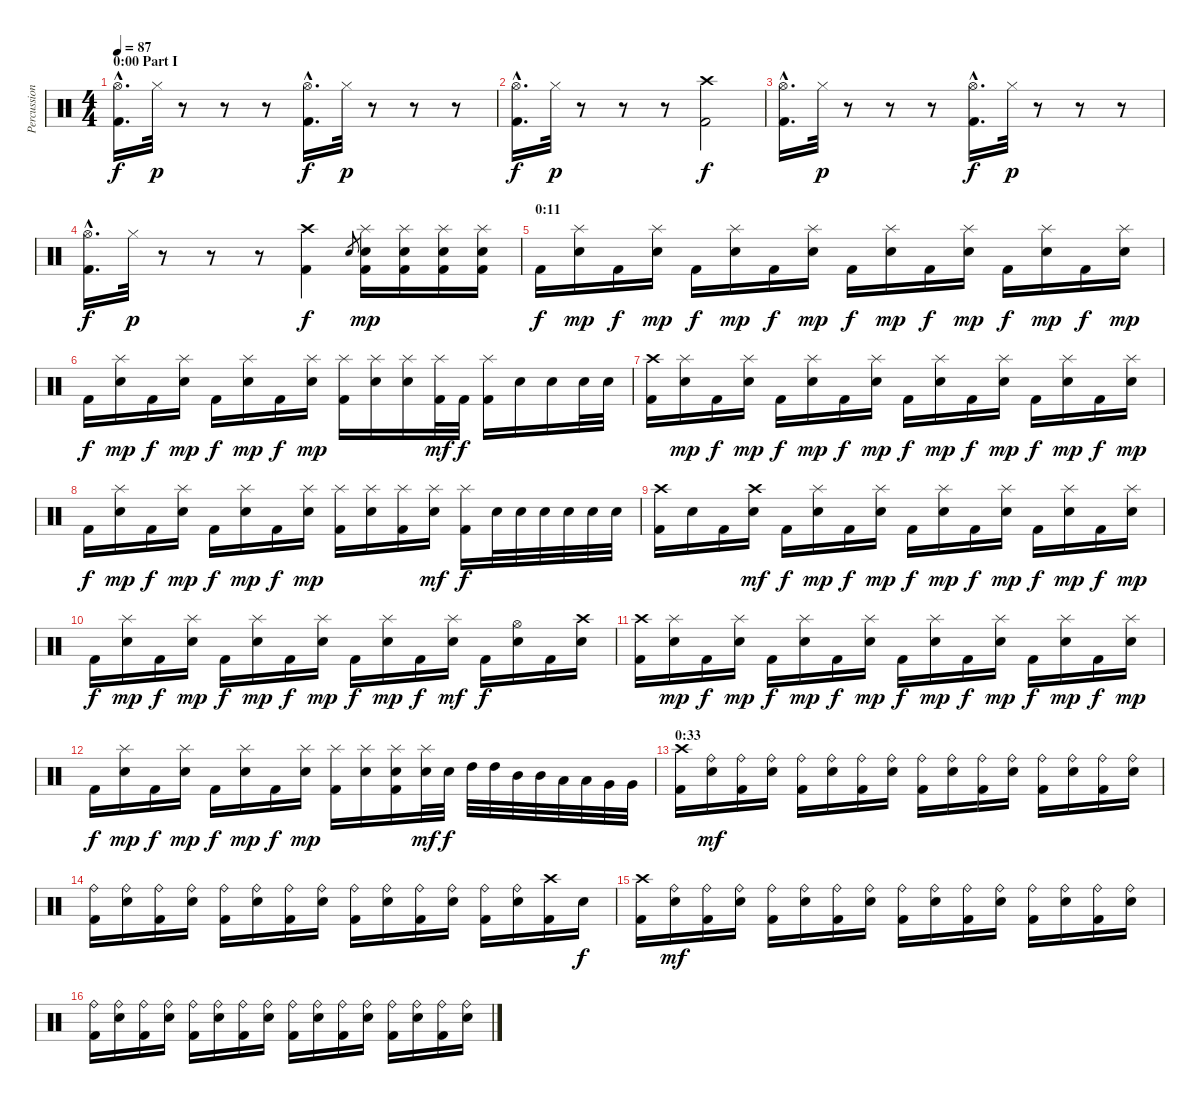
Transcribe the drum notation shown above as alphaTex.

\track ("Percussion" "Percussion") {instrument percussion}
\staff {score}
\articulation defaults
\ts (4 4)
\section ("" "0:00 Part I")
\tempo 87
\clef neutral
\ks c
("Hi-Hat (open)"{hac} "Kick (hit) 2"{hac}).16{d dy f} "Hi-Hat (closed)".32{dy p} r.8 r.8 r.8 ("Hi-Hat (open)"{hac} "Kick (hit) 2"{hac}).16{d dy f} "Hi-Hat (closed)".32{dy p} r.8 r.8 r.8 |
("Hi-Hat (open)"{hac} "Kick (hit) 2"{hac}).16{d dy f} "Hi-Hat (closed)".32{dy p} r.8 r.8 r.8 ("Crash high (hit)" "Kick (hit) 2").2{dy f} |
("Hi-Hat (open)"{hac} "Kick (hit) 2"{hac}).16{d} "Hi-Hat (closed)".32{dy p} r.8 r.8 r.8 ("Hi-Hat (open)"{hac} "Kick (hit) 2"{hac}).16{d dy f} "Hi-Hat (closed)".32{dy p} r.8 r.8 r.8 |
("Hi-Hat (open)"{hac} "Kick (hit) 2"{hac}).16{d dy f} "Hi-Hat (closed)".32{dy p} r.8 r.8 r.8 ("Crash high (hit)" "Kick (hit) 2").4{dy f} "Snare (hit) 2".8{gr} ("Splash (hit)" "Snare (hit) 2" "Kick (hit) 2").16{dy mp} ("Splash (hit)" "Snare (hit) 2" "Kick (hit) 2").16 ("Splash (hit)" "Snare (hit) 2" "Kick (hit) 2").16 ("Splash (hit)" "Snare (hit) 2" "Kick (hit) 2").16 |
\section ("" "0:11")
"Kick (hit) 2".16{dy f} ("Splash (hit)" "Snare (hit) 2").16{dy mp} "Kick (hit) 2".16{dy f} ("Splash (hit)" "Snare (hit) 2").16{dy mp} "Kick (hit) 2".16{dy f} ("Splash (hit)" "Snare (hit) 2").16{dy mp} "Kick (hit) 2".16{dy f} ("Splash (hit)" "Snare (hit) 2").16{dy mp} "Kick (hit) 2".16{dy f} ("Splash (hit)" "Snare (hit) 2").16{dy mp} "Kick (hit) 2".16{dy f} ("Splash (hit)" "Snare (hit) 2").16{dy mp} "Kick (hit) 2".16{dy f} ("Splash (hit)" "Snare (hit) 2").16{dy mp} "Kick (hit) 2".16{dy f} ("Splash (hit)" "Snare (hit) 2").16{dy mp} |
"Kick (hit) 2".16{dy f} ("Splash (hit)" "Snare (hit) 2").16{dy mp} "Kick (hit) 2".16{dy f} ("Splash (hit)" "Snare (hit) 2").16{dy mp} "Kick (hit) 2".16{dy f} ("Splash (hit)" "Snare (hit) 2").16{dy mp} "Kick (hit) 2".16{dy f} ("Splash (hit)" "Snare (hit) 2").16{dy mp} ("Splash (hit)" "Kick (hit) 2").16 ("Splash (hit)" "Snare (hit) 2").16 ("Splash (hit)" "Snare (hit) 2").16 ("Splash (hit)" "Kick (hit) 2").32{dy mf} "Kick (hit) 2".32{dy f} ("Splash (hit)" "Kick (hit) 2").16 "Snare (hit) 2".16 "Snare (hit) 2".16 "Snare (hit) 2".32 "Snare (hit) 2".32 |
("Crash high (hit)" "Kick (hit) 2").16 ("Splash (hit)" "Snare (hit) 2").16{dy mp} "Kick (hit) 2".16{dy f} ("Splash (hit)" "Snare (hit) 2").16{dy mp} "Kick (hit) 2".16{dy f} ("Splash (hit)" "Snare (hit) 2").16{dy mp} "Kick (hit) 2".16{dy f} ("Splash (hit)" "Snare (hit) 2").16{dy mp} "Kick (hit) 2".16{dy f} ("Splash (hit)" "Snare (hit) 2").16{dy mp} "Kick (hit) 2".16{dy f} ("Splash (hit)" "Snare (hit) 2").16{dy mp} "Kick (hit) 2".16{dy f} ("Splash (hit)" "Snare (hit) 2").16{dy mp} "Kick (hit) 2".16{dy f} ("Splash (hit)" "Snare (hit) 2").16{dy mp} |
"Kick (hit) 2".16{dy f} ("Splash (hit)" "Snare (hit) 2").16{dy mp} "Kick (hit) 2".16{dy f} ("Splash (hit)" "Snare (hit) 2").16{dy mp} "Kick (hit) 2".16{dy f} ("Splash (hit)" "Snare (hit) 2").16{dy mp} "Kick (hit) 2".16{dy f} ("Splash (hit)" "Snare (hit) 2").16{dy mp} ("Splash (hit)" "Kick (hit) 2").16 ("Splash (hit)" "Snare (hit) 2").16 ("Splash (hit)" "Kick (hit) 2").16 ("Splash (hit)" "Snare (hit) 2").16{dy mf} ("Splash (hit)" "Kick (hit) 2").16{dy f} "Snare (hit) 2".32 "Snare (hit) 2".32 "Snare (hit) 2".32 "Snare (hit) 2".32 "Snare (hit) 2".32 "Snare (hit) 2".32 |
("Crash high (hit)" "Kick (hit) 2").16 "Snare (hit) 2".16 "Kick (hit) 2".16 ("Crash high (hit)" "Snare (hit) 2").16{dy mf} "Kick (hit) 2".16{dy f} ("Splash (hit)" "Snare (hit) 2").16{dy mp} "Kick (hit) 2".16{dy f} ("Splash (hit)" "Snare (hit) 2").16{dy mp} "Kick (hit) 2".16{dy f} ("Splash (hit)" "Snare (hit) 2").16{dy mp} "Kick (hit) 2".16{dy f} ("Splash (hit)" "Snare (hit) 2").16{dy mp} "Kick (hit) 2".16{dy f} ("Splash (hit)" "Snare (hit) 2").16{dy mp} "Kick (hit) 2".16{dy f} ("Splash (hit)" "Snare (hit) 2").16{dy mp} |
"Kick (hit) 2".16{dy f} ("Splash (hit)" "Snare (hit) 2").16{dy mp} "Kick (hit) 2".16{dy f} ("Splash (hit)" "Snare (hit) 2").16{dy mp} "Kick (hit) 2".16{dy f} ("Splash (hit)" "Snare (hit) 2").16{dy mp} "Kick (hit) 2".16{dy f} ("Splash (hit)" "Snare (hit) 2").16{dy mp} "Kick (hit) 2".16{dy f} ("Splash (hit)" "Snare (hit) 2").16{dy mp} "Kick (hit) 2".16{dy f} ("Splash (hit)" "Snare (hit) 2").16{dy mf} "Kick (hit) 2".16{dy f} ("Hi-Hat (open)" "Snare (hit) 2").16 "Kick (hit) 2".16 ("Crash high (hit)" "Snare (hit) 2").16 |
("Crash high (hit)" "Kick (hit) 2").16 ("Splash (hit)" "Snare (hit) 2").16{dy mp} "Kick (hit) 2".16{dy f} ("Splash (hit)" "Snare (hit) 2").16{dy mp} "Kick (hit) 2".16{dy f} ("Splash (hit)" "Snare (hit) 2").16{dy mp} "Kick (hit) 2".16{dy f} ("Splash (hit)" "Snare (hit) 2").16{dy mp} "Kick (hit) 2".16{dy f} ("Splash (hit)" "Snare (hit) 2").16{dy mp} "Kick (hit) 2".16{dy f} ("Splash (hit)" "Snare (hit) 2").16{dy mp} "Kick (hit) 2".16{dy f} ("Splash (hit)" "Snare (hit) 2").16{dy mp} "Kick (hit) 2".16{dy f} ("Splash (hit)" "Snare (hit) 2").16{dy mp} |
"Kick (hit) 2".16{dy f} ("Splash (hit)" "Snare (hit) 2").16{dy mp} "Kick (hit) 2".16{dy f} ("Splash (hit)" "Snare (hit) 2").16{dy mp} "Kick (hit) 2".16{dy f} ("Splash (hit)" "Snare (hit) 2").16{dy mp} "Kick (hit) 2".16{dy f} ("Splash (hit)" "Snare (hit) 2").16{dy mp} ("Splash (hit)" "Kick (hit) 2").16 ("Splash (hit)" "Snare (hit) 2").16 ("Splash (hit)" "Snare (hit) 2" "Kick (hit) 2").16 ("Splash (hit)" "Snare (hit) 2").32{dy mf} "Snare (hit) 2".32{dy f} "High Tom (hit)".32 "High Tom (hit)".32 "Mid Tom (hit)".32 "Mid Tom (hit)".32 "Low Tom (hit)".32 "Low Tom (hit)".32 "Very Low Tom (hit)".32 "Very Low Tom (hit)".32 |
\section ("" "0:33")
("Crash high (hit)" "Kick (hit) 2").16 ("Ride (bell)" "Snare (hit) 2").16{dy mf} ("Ride (bell)" "Kick (hit) 2").16 ("Ride (bell)" "Snare (hit) 2").16 ("Ride (bell)" "Kick (hit) 2").16 ("Ride (bell)" "Snare (hit) 2").16 ("Ride (bell)" "Kick (hit) 2").16 ("Ride (bell)" "Snare (hit) 2").16 ("Ride (bell)" "Kick (hit) 2").16 ("Ride (bell)" "Snare (hit) 2").16 ("Ride (bell)" "Kick (hit) 2").16 ("Ride (bell)" "Snare (hit) 2").16 ("Ride (bell)" "Kick (hit) 2").16 ("Ride (bell)" "Snare (hit) 2").16 ("Ride (bell)" "Kick (hit) 2").16 ("Ride (bell)" "Snare (hit) 2").16 |
("Ride (bell)" "Kick (hit) 2").16 ("Ride (bell)" "Snare (hit) 2").16 ("Ride (bell)" "Kick (hit) 2").16 ("Ride (bell)" "Snare (hit) 2").16 ("Ride (bell)" "Kick (hit) 2").16 ("Ride (bell)" "Snare (hit) 2").16 ("Ride (bell)" "Kick (hit) 2").16 ("Ride (bell)" "Snare (hit) 2").16 ("Ride (bell)" "Kick (hit) 2").16 ("Ride (bell)" "Snare (hit) 2").16 ("Ride (bell)" "Kick (hit) 2").16 ("Ride (bell)" "Snare (hit) 2").16 ("Ride (bell)" "Kick (hit) 2").16 ("Ride (bell)" "Snare (hit) 2").16 ("Crash high (hit)" "Kick (hit) 2").16 "Snare (hit) 2".16{dy f} |
("Crash high (hit)" "Kick (hit) 2").16 ("Ride (bell)" "Snare (hit) 2").16{dy mf} ("Ride (bell)" "Kick (hit) 2").16 ("Ride (bell)" "Snare (hit) 2").16 ("Ride (bell)" "Kick (hit) 2").16 ("Ride (bell)" "Snare (hit) 2").16 ("Ride (bell)" "Kick (hit) 2").16 ("Ride (bell)" "Snare (hit) 2").16 ("Ride (bell)" "Kick (hit) 2").16 ("Ride (bell)" "Snare (hit) 2").16 ("Ride (bell)" "Kick (hit) 2").16 ("Ride (bell)" "Snare (hit) 2").16 ("Ride (bell)" "Kick (hit) 2").16 ("Ride (bell)" "Snare (hit) 2").16 ("Ride (bell)" "Kick (hit) 2").16 ("Ride (bell)" "Snare (hit) 2").16 |
("Ride (bell)" "Kick (hit) 2").16 ("Ride (bell)" "Snare (hit) 2").16 ("Ride (bell)" "Kick (hit) 2").16 ("Ride (bell)" "Snare (hit) 2").16 ("Ride (bell)" "Kick (hit) 2").16 ("Ride (bell)" "Snare (hit) 2").16 ("Ride (bell)" "Kick (hit) 2").16 ("Ride (bell)" "Snare (hit) 2").16 ("Ride (bell)" "Kick (hit) 2").16 ("Ride (bell)" "Snare (hit) 2").16 ("Ride (bell)" "Kick (hit) 2").16 ("Ride (bell)" "Snare (hit) 2").16 ("Ride (bell)" "Kick (hit) 2").16 ("Ride (bell)" "Snare (hit) 2").16 ("Ride (bell)" "Kick (hit) 2").16 ("Ride (bell)" "Snare (hit) 2").16
